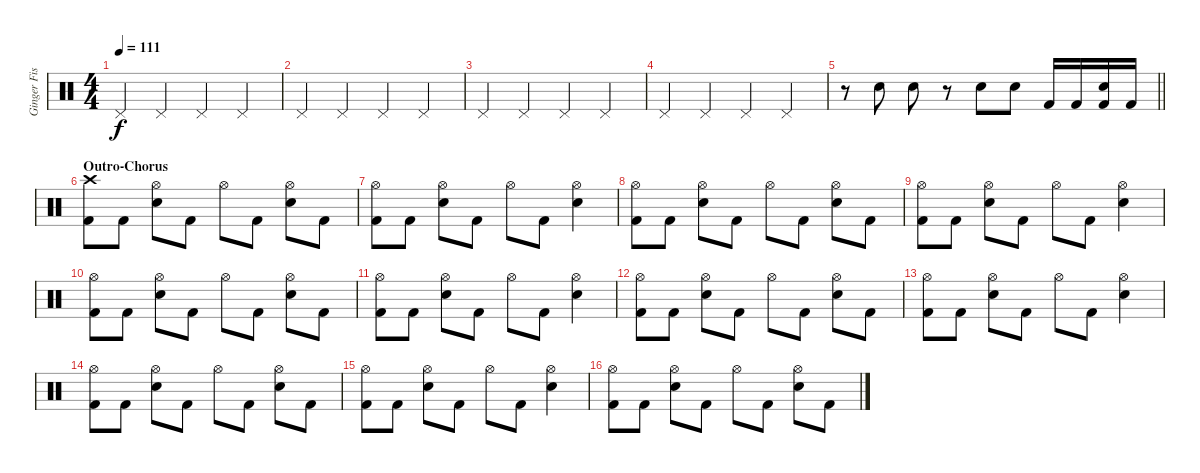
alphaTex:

\track ("Ginger Fish" "Ginger Fis") {instrument percussion}
\staff {score}
\articulation defaults
\ts (4 4)
\tempo 111
\clef neutral
\ks c "Pedal Hi-Hat (hit)".4{dy f} "Pedal Hi-Hat (hit)".4 "Pedal Hi-Hat (hit)".4 "Pedal Hi-Hat (hit)".4
|
"Pedal Hi-Hat (hit)".4 "Pedal Hi-Hat (hit)".4 "Pedal Hi-Hat (hit)".4 "Pedal Hi-Hat (hit)".4 |
"Pedal Hi-Hat (hit)".4 "Pedal Hi-Hat (hit)".4 "Pedal Hi-Hat (hit)".4 "Pedal Hi-Hat (hit)".4 |
"Pedal Hi-Hat (hit)".4 "Pedal Hi-Hat (hit)".4 "Pedal Hi-Hat (hit)".4 "Pedal Hi-Hat (hit)".4 |
\barLineRight lightlight
r.8 "Snare (hit) 2".8 "Snare (hit) 2".8 r.8 "Snare (hit) 2".8 "Snare (hit) 2".8 "Kick (hit) 2".16 "Kick (hit) 2".16 ("Snare (hit) 2" "Kick (hit) 2").16 "Kick (hit) 2".16 |
\section ("" "Outro-Chorus")
("Crash high (hit)" "Kick (hit) 2").8 "Kick (hit) 2".8 ("Hi-Hat (open)" "Snare (hit) 2").8 "Kick (hit) 2".8 "Hi-Hat (open)".8 "Kick (hit) 2".8 ("Hi-Hat (open)" "Snare (hit) 2").8 "Kick (hit) 2".8 |
("Hi-Hat (open)" "Kick (hit) 2").8 "Kick (hit) 2".8 ("Hi-Hat (open)" "Snare (hit) 2").8 "Kick (hit) 2".8 "Hi-Hat (open)".8 "Kick (hit) 2".8 ("Hi-Hat (open)" "Snare (hit) 2").4 |
("Hi-Hat (open)" "Kick (hit) 2").8 "Kick (hit) 2".8 ("Hi-Hat (open)" "Snare (hit) 2").8 "Kick (hit) 2".8 "Hi-Hat (open)".8 "Kick (hit) 2".8 ("Hi-Hat (open)" "Snare (hit) 2").8 "Kick (hit) 2".8 |
("Hi-Hat (open)" "Kick (hit) 2").8 "Kick (hit) 2".8 ("Hi-Hat (open)" "Snare (hit) 2").8 "Kick (hit) 2".8 "Hi-Hat (open)".8 "Kick (hit) 2".8 ("Hi-Hat (open)" "Snare (hit) 2").4 |
("Hi-Hat (open)" "Kick (hit) 2").8 "Kick (hit) 2".8 ("Hi-Hat (open)" "Snare (hit) 2").8 "Kick (hit) 2".8 "Hi-Hat (open)".8 "Kick (hit) 2".8 ("Hi-Hat (open)" "Snare (hit) 2").8 "Kick (hit) 2".8 |
("Hi-Hat (open)" "Kick (hit) 2").8 "Kick (hit) 2".8 ("Hi-Hat (open)" "Snare (hit) 2").8 "Kick (hit) 2".8 "Hi-Hat (open)".8 "Kick (hit) 2".8 ("Hi-Hat (open)" "Snare (hit) 2").4 |
("Hi-Hat (open)" "Kick (hit) 2").8 "Kick (hit) 2".8 ("Hi-Hat (open)" "Snare (hit) 2").8 "Kick (hit) 2".8 "Hi-Hat (open)".8 "Kick (hit) 2".8 ("Hi-Hat (open)" "Snare (hit) 2").8 "Kick (hit) 2".8 |
("Hi-Hat (open)" "Kick (hit) 2").8 "Kick (hit) 2".8 ("Hi-Hat (open)" "Snare (hit) 2").8 "Kick (hit) 2".8 "Hi-Hat (open)".8 "Kick (hit) 2".8 ("Hi-Hat (open)" "Snare (hit) 2").4 |
("Hi-Hat (open)" "Kick (hit) 2").8 "Kick (hit) 2".8 ("Hi-Hat (open)" "Snare (hit) 2").8 "Kick (hit) 2".8 "Hi-Hat (open)".8 "Kick (hit) 2".8 ("Hi-Hat (open)" "Snare (hit) 2").8 "Kick (hit) 2".8 |
("Hi-Hat (open)" "Kick (hit) 2").8 "Kick (hit) 2".8 ("Hi-Hat (open)" "Snare (hit) 2").8 "Kick (hit) 2".8 "Hi-Hat (open)".8 "Kick (hit) 2".8 ("Hi-Hat (open)" "Snare (hit) 2").4 |
("Hi-Hat (open)" "Kick (hit) 2").8 "Kick (hit) 2".8 ("Hi-Hat (open)" "Snare (hit) 2").8 "Kick (hit) 2".8 "Hi-Hat (open)".8 "Kick (hit) 2".8 ("Hi-Hat (open)" "Snare (hit) 2").8 "Kick (hit) 2".8
